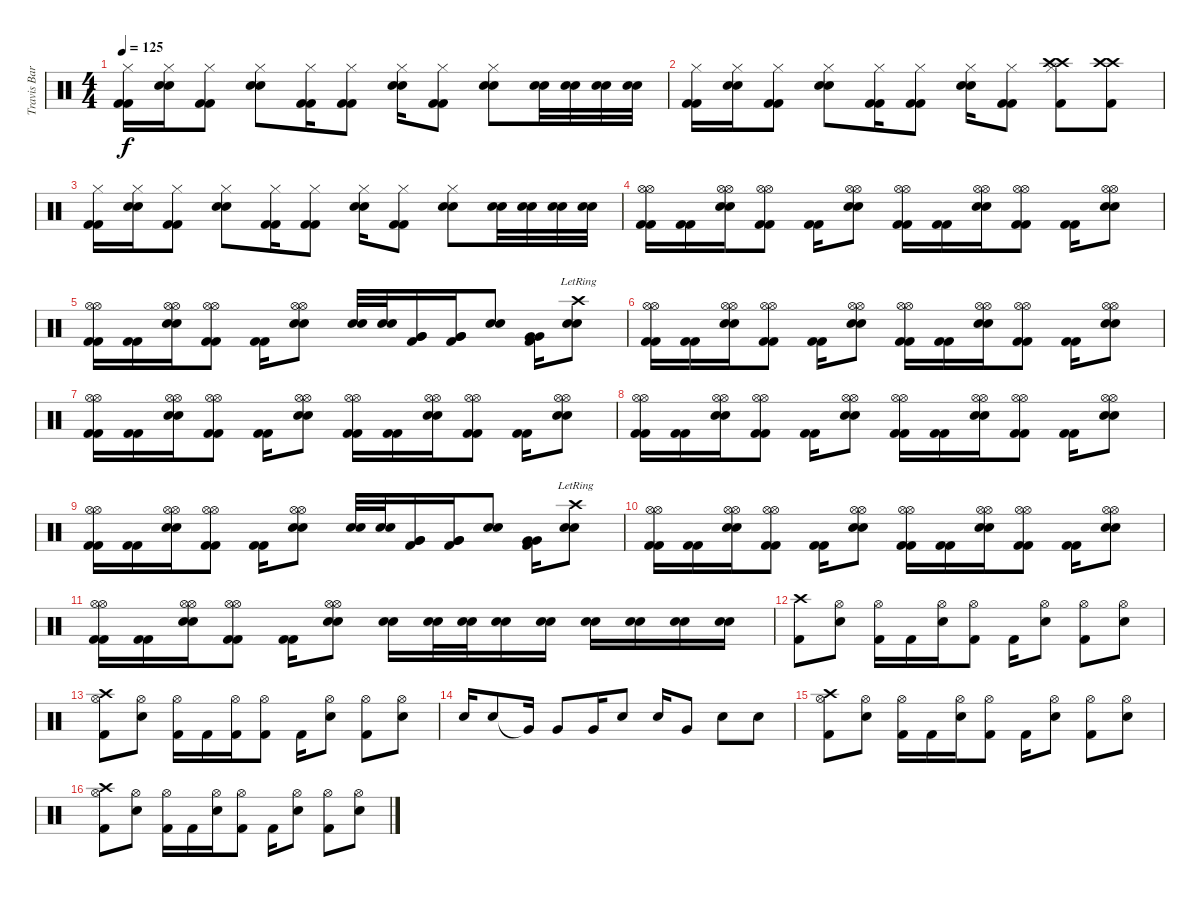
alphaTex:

\track ("Travis Barker - Drums" "Travis Bar") {instrument percussion}
\staff {score}
\articulation defaults
\ts (4 4)
\tempo 125
\clef neutral
\ks c
("Kick (hit) 2" "Kick (hit) 2" "Hi-Hat (closed)").16{dy f} ("Snare (hit) 2" "Snare (hit) 2" "Hi-Hat (closed)").16 ("Kick (hit) 2" "Kick (hit) 2" "Hi-Hat (closed)").8 ("Snare (hit) 2" "Snare (hit) 2" "Hi-Hat (closed)").8 ("Kick (hit) 2" "Kick (hit) 2" "Hi-Hat (closed)").16 ("Kick (hit) 2" "Kick (hit) 2" "Hi-Hat (closed)").8 ("Snare (hit) 2" "Snare (hit) 2" "Hi-Hat (closed)").16 ("Kick (hit) 2" "Kick (hit) 2" "Hi-Hat (closed)").8 ("Snare (hit) 2" "Snare (hit) 2" "Hi-Hat (closed)").8 ("Snare (hit) 2" "Snare (hit) 2").32 ("Snare (hit) 2" "Snare (hit) 2").32 ("Snare (hit) 2" "Snare (hit) 2").32 ("Snare (hit) 2" "Snare (hit) 2").32 |
("Kick (hit) 2" "Kick (hit) 2" "Hi-Hat (closed)").16 ("Snare (hit) 2" "Snare (hit) 2" "Hi-Hat (closed)").16 ("Kick (hit) 2" "Kick (hit) 2" "Hi-Hat (closed)").8 ("Snare (hit) 2" "Snare (hit) 2" "Hi-Hat (closed)").8 ("Kick (hit) 2" "Kick (hit) 2" "Hi-Hat (closed)").16 ("Kick (hit) 2" "Kick (hit) 2" "Hi-Hat (closed)").8 ("Snare (hit) 2" "Snare (hit) 2" "Hi-Hat (closed)").16 ("Kick (hit) 2" "Kick (hit) 2" "Hi-Hat (closed)").8 ("Crash high (hit)" "Crash high (hit)" "Hi-Hat (closed)" "Kick (hit) 2").8 ("Crash high (hit)" "Crash high (hit)" "Kick (hit) 2").8 |
("Kick (hit) 2" "Kick (hit) 2" "Hi-Hat (closed)").16 ("Snare (hit) 2" "Snare (hit) 2" "Hi-Hat (closed)").16 ("Kick (hit) 2" "Kick (hit) 2" "Hi-Hat (closed)").8 ("Snare (hit) 2" "Snare (hit) 2" "Hi-Hat (closed)").8 ("Kick (hit) 2" "Kick (hit) 2" "Hi-Hat (closed)").16 ("Kick (hit) 2" "Kick (hit) 2" "Hi-Hat (closed)").8 ("Snare (hit) 2" "Snare (hit) 2" "Hi-Hat (closed)").16 ("Kick (hit) 2" "Kick (hit) 2" "Hi-Hat (closed)").8 ("Snare (hit) 2" "Snare (hit) 2" "Hi-Hat (closed)").8 ("Snare (hit) 2" "Snare (hit) 2").32 ("Snare (hit) 2" "Snare (hit) 2").32 ("Snare (hit) 2" "Snare (hit) 2").32 ("Snare (hit) 2" "Snare (hit) 2").32 |
("Kick (hit) 2" "Kick (hit) 2" "Hi-Hat (open)" "Hi-Hat (open)").16 ("Kick (hit) 2" "Kick (hit) 2").16 ("Snare (hit) 2" "Snare (hit) 2" "Hi-Hat (open)" "Hi-Hat (open)").16 ("Kick (hit) 2" "Kick (hit) 2" "Hi-Hat (open)" "Hi-Hat (open)").8 ("Kick (hit) 2" "Kick (hit) 2").16 ("Snare (hit) 2" "Snare (hit) 2" "Hi-Hat (open)" "Hi-Hat (open)").8 ("Kick (hit) 2" "Kick (hit) 2" "Hi-Hat (open)" "Hi-Hat (open)").16 ("Kick (hit) 2" "Kick (hit) 2").16 ("Snare (hit) 2" "Snare (hit) 2" "Hi-Hat (open)" "Hi-Hat (open)").16 ("Kick (hit) 2" "Kick (hit) 2" "Hi-Hat (open)" "Hi-Hat (open)").8 ("Kick (hit) 2" "Kick (hit) 2").16 ("Snare (hit) 2" "Snare (hit) 2" "Hi-Hat (open)" "Hi-Hat (open)").8 |
("Kick (hit) 2" "Kick (hit) 2" "Hi-Hat (open)" "Hi-Hat (open)").16 ("Kick (hit) 2" "Kick (hit) 2").16 ("Snare (hit) 2" "Snare (hit) 2" "Hi-Hat (open)" "Hi-Hat (open)").16 ("Kick (hit) 2" "Kick (hit) 2" "Hi-Hat (open)" "Hi-Hat (open)").8 ("Kick (hit) 2" "Kick (hit) 2").16 ("Snare (hit) 2" "Snare (hit) 2" "Hi-Hat (open)" "Hi-Hat (open)").8 ("Snare (hit) 2" "Snare (hit) 2").32 ("Snare (hit) 2" "Snare (hit) 2").32 ("Very Low Tom (hit)" "Very Low Tom (hit)" "Kick (hit) 2").16 ("Very Low Tom (hit)" "Very Low Tom (hit)" "Kick (hit) 2").16 ("Snare (hit) 2" "Snare (hit) 2").8 ("Very Low Tom (hit)" "Very Low Tom (hit)" "Kick (hit) 2").16 ("Snare (hit) 2" "Snare (hit) 2" "Crash high (hit)"{lr}).8 |
("Kick (hit) 2" "Kick (hit) 2" "Hi-Hat (open)" "Hi-Hat (open)").16 ("Kick (hit) 2" "Kick (hit) 2").16 ("Snare (hit) 2" "Snare (hit) 2" "Hi-Hat (open)" "Hi-Hat (open)").16 ("Kick (hit) 2" "Kick (hit) 2" "Hi-Hat (open)" "Hi-Hat (open)").8 ("Kick (hit) 2" "Kick (hit) 2").16 ("Snare (hit) 2" "Snare (hit) 2" "Hi-Hat (open)" "Hi-Hat (open)").8 ("Kick (hit) 2" "Kick (hit) 2" "Hi-Hat (open)" "Hi-Hat (open)").16 ("Kick (hit) 2" "Kick (hit) 2").16 ("Snare (hit) 2" "Snare (hit) 2" "Hi-Hat (open)" "Hi-Hat (open)").16 ("Kick (hit) 2" "Kick (hit) 2" "Hi-Hat (open)" "Hi-Hat (open)").8 ("Kick (hit) 2" "Kick (hit) 2").16 ("Snare (hit) 2" "Snare (hit) 2" "Hi-Hat (open)" "Hi-Hat (open)").8 |
("Kick (hit) 2" "Kick (hit) 2" "Hi-Hat (open)" "Hi-Hat (open)").16 ("Kick (hit) 2" "Kick (hit) 2").16 ("Snare (hit) 2" "Snare (hit) 2" "Hi-Hat (open)" "Hi-Hat (open)").16 ("Kick (hit) 2" "Kick (hit) 2" "Hi-Hat (open)" "Hi-Hat (open)").8 ("Kick (hit) 2" "Kick (hit) 2").16 ("Snare (hit) 2" "Snare (hit) 2" "Hi-Hat (open)" "Hi-Hat (open)").8 ("Kick (hit) 2" "Kick (hit) 2" "Hi-Hat (open)" "Hi-Hat (open)").16 ("Kick (hit) 2" "Kick (hit) 2").16 ("Snare (hit) 2" "Snare (hit) 2" "Hi-Hat (open)" "Hi-Hat (open)").16 ("Kick (hit) 2" "Kick (hit) 2" "Hi-Hat (open)" "Hi-Hat (open)").8 ("Kick (hit) 2" "Kick (hit) 2").16 ("Snare (hit) 2" "Snare (hit) 2" "Hi-Hat (open)" "Hi-Hat (open)").8 |
("Kick (hit) 2" "Kick (hit) 2" "Hi-Hat (open)" "Hi-Hat (open)").16 ("Kick (hit) 2" "Kick (hit) 2").16 ("Snare (hit) 2" "Snare (hit) 2" "Hi-Hat (open)" "Hi-Hat (open)").16 ("Kick (hit) 2" "Kick (hit) 2" "Hi-Hat (open)" "Hi-Hat (open)").8 ("Kick (hit) 2" "Kick (hit) 2").16 ("Snare (hit) 2" "Snare (hit) 2" "Hi-Hat (open)" "Hi-Hat (open)").8 ("Kick (hit) 2" "Kick (hit) 2" "Hi-Hat (open)" "Hi-Hat (open)").16 ("Kick (hit) 2" "Kick (hit) 2").16 ("Snare (hit) 2" "Snare (hit) 2" "Hi-Hat (open)" "Hi-Hat (open)").16 ("Kick (hit) 2" "Kick (hit) 2" "Hi-Hat (open)" "Hi-Hat (open)").8 ("Kick (hit) 2" "Kick (hit) 2").16 ("Snare (hit) 2" "Snare (hit) 2" "Hi-Hat (open)" "Hi-Hat (open)").8 |
("Kick (hit) 2" "Kick (hit) 2" "Hi-Hat (open)" "Hi-Hat (open)").16 ("Kick (hit) 2" "Kick (hit) 2").16 ("Snare (hit) 2" "Snare (hit) 2" "Hi-Hat (open)" "Hi-Hat (open)").16 ("Kick (hit) 2" "Kick (hit) 2" "Hi-Hat (open)" "Hi-Hat (open)").8 ("Kick (hit) 2" "Kick (hit) 2").16 ("Snare (hit) 2" "Snare (hit) 2" "Hi-Hat (open)" "Hi-Hat (open)").8 ("Snare (hit) 2" "Snare (hit) 2").32 ("Snare (hit) 2" "Snare (hit) 2").32 ("Very Low Tom (hit)" "Very Low Tom (hit)" "Kick (hit) 2").16 ("Very Low Tom (hit)" "Very Low Tom (hit)" "Kick (hit) 2").16 ("Snare (hit) 2" "Snare (hit) 2").8 ("Very Low Tom (hit)" "Very Low Tom (hit)" "Kick (hit) 2").16 ("Snare (hit) 2" "Snare (hit) 2" "Crash high (hit)"{lr}).8 |
("Kick (hit) 2" "Kick (hit) 2" "Hi-Hat (open)" "Hi-Hat (open)").16 ("Kick (hit) 2" "Kick (hit) 2").16 ("Snare (hit) 2" "Snare (hit) 2" "Hi-Hat (open)" "Hi-Hat (open)").16 ("Kick (hit) 2" "Kick (hit) 2" "Hi-Hat (open)" "Hi-Hat (open)").8 ("Kick (hit) 2" "Kick (hit) 2").16 ("Snare (hit) 2" "Snare (hit) 2" "Hi-Hat (open)" "Hi-Hat (open)").8 ("Kick (hit) 2" "Kick (hit) 2" "Hi-Hat (open)" "Hi-Hat (open)").16 ("Kick (hit) 2" "Kick (hit) 2").16 ("Snare (hit) 2" "Snare (hit) 2" "Hi-Hat (open)" "Hi-Hat (open)").16 ("Kick (hit) 2" "Kick (hit) 2" "Hi-Hat (open)" "Hi-Hat (open)").8 ("Kick (hit) 2" "Kick (hit) 2").16 ("Snare (hit) 2" "Snare (hit) 2" "Hi-Hat (open)" "Hi-Hat (open)").8 |
("Kick (hit) 2" "Kick (hit) 2" "Hi-Hat (open)" "Hi-Hat (open)").16 ("Kick (hit) 2" "Kick (hit) 2").16 ("Snare (hit) 2" "Snare (hit) 2" "Hi-Hat (open)" "Hi-Hat (open)").16 ("Kick (hit) 2" "Kick (hit) 2" "Hi-Hat (open)" "Hi-Hat (open)").8 ("Kick (hit) 2" "Kick (hit) 2").16 ("Snare (hit) 2" "Snare (hit) 2" "Hi-Hat (open)" "Hi-Hat (open)").8 ("Snare (hit) 2" "Snare (hit) 2").16 ("Snare (hit) 2" "Snare (hit) 2").32 ("Snare (hit) 2" "Snare (hit) 2").32 ("Snare (hit) 2" "Snare (hit) 2").16 ("Snare (hit) 2" "Snare (hit) 2").16 ("Snare (hit) 2" "Snare (hit) 2").16 ("Snare (hit) 2" "Snare (hit) 2").16 ("Snare (hit) 2" "Snare (hit) 2").16 ("Snare (hit) 2" "Snare (hit) 2").16 |
("Crash high (hit)" "Kick (hit) 2").8 ("Hi-Hat (open)" "Electric Snare (hit)").8 ("Hi-Hat (open)" "Kick (hit) 2").16 "Kick (hit) 2".16 ("Hi-Hat (open)" "Electric Snare (hit)").16 ("Hi-Hat (open)" "Kick (hit) 2").8 "Kick (hit) 2".16 ("Hi-Hat (open)" "Electric Snare (hit)").8 ("Hi-Hat (open)" "Kick (hit) 2").8 ("Hi-Hat (open)" "Electric Snare (hit)").8 |
("Crash high (hit)" "Hi-Hat (open)" "Kick (hit) 2").8 ("Hi-Hat (open)" "Electric Snare (hit)").8 ("Hi-Hat (open)" "Kick (hit) 2").16 "Kick (hit) 2".16 ("Hi-Hat (open)" "Kick (hit) 2").16 ("Hi-Hat (open)" "Kick (hit) 2").8 "Kick (hit) 2".16 ("Hi-Hat (open)" "Electric Snare (hit)").8 ("Hi-Hat (open)" "Kick (hit) 2").8 ("Hi-Hat (open)" "Electric Snare (hit)").8 |
"Electric Snare (hit)".16 "Electric Snare (hit)".8 "Very Low Tom (hit)"{t}.16 "Very Low Tom (hit)".8 "Very Low Tom (hit)".16 "Electric Snare (hit)".8 "Electric Snare (hit)".16 "Very Low Tom (hit)".8 "Electric Snare (hit)".8 "Electric Snare (hit)".8 |
("Crash high (hit)" "Hi-Hat (open)" "Kick (hit) 2").8 ("Hi-Hat (open)" "Electric Snare (hit)").8 ("Hi-Hat (open)" "Kick (hit) 2").16 "Kick (hit) 2".16 ("Hi-Hat (open)" "Electric Snare (hit)").16 ("Hi-Hat (open)" "Kick (hit) 2").8 "Kick (hit) 2".16 ("Hi-Hat (open)" "Electric Snare (hit)").8 ("Hi-Hat (open)" "Kick (hit) 2").8 ("Hi-Hat (open)" "Electric Snare (hit)").8 |
("Crash high (hit)" "Hi-Hat (open)" "Kick (hit) 2").8 ("Hi-Hat (open)" "Electric Snare (hit)").8 ("Hi-Hat (open)" "Kick (hit) 2").16 "Kick (hit) 2".16 ("Hi-Hat (open)" "Electric Snare (hit)").16 ("Hi-Hat (open)" "Kick (hit) 2").8 "Kick (hit) 2".16 ("Hi-Hat (open)" "Electric Snare (hit)").8 ("Hi-Hat (open)" "Kick (hit) 2").8 ("Hi-Hat (open)" "Electric Snare (hit)").8
